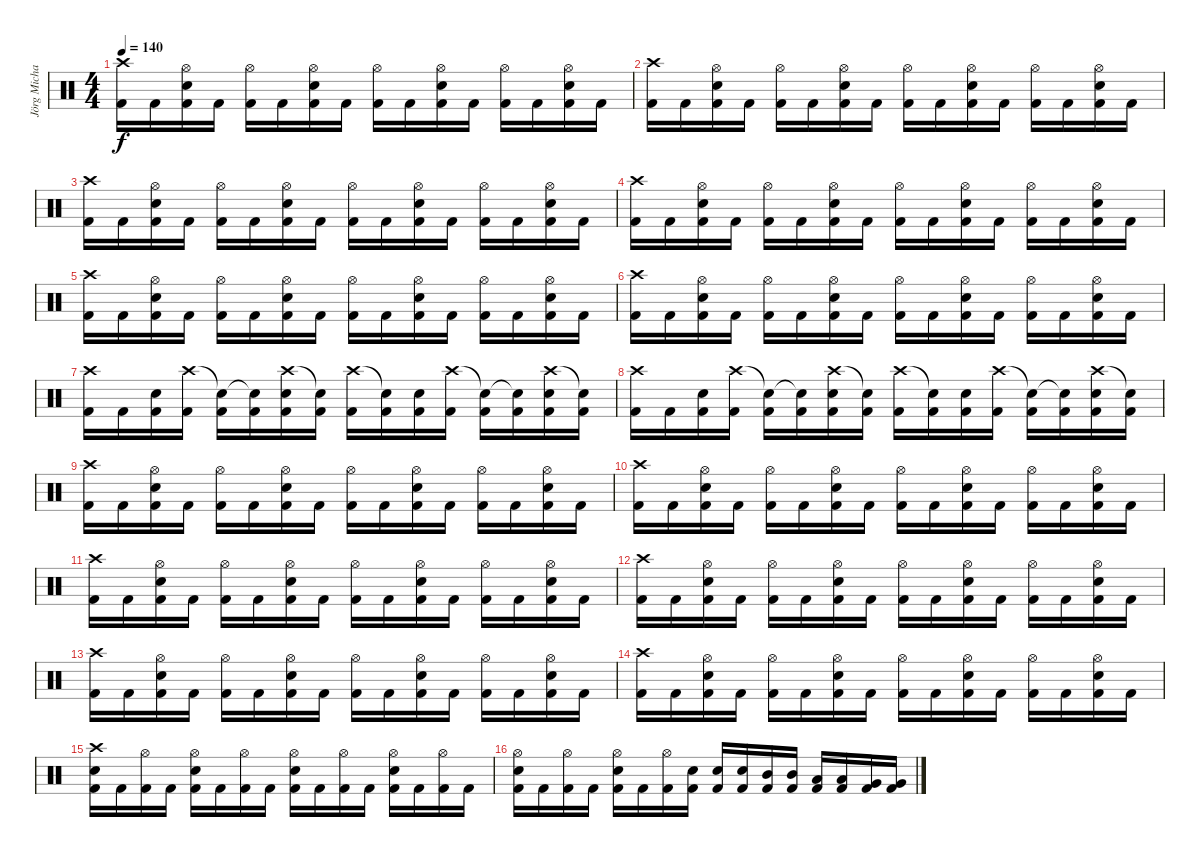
\track ("Jörg Michael" "Jörg Micha") {instrument percussion}
\staff {score}
\articulation defaults
\ts (4 4)
\tempo 140
\clef neutral
\ks c
("Crash high (hit)" "Kick (hit) 2").16{dy f} "Kick (hit) 2".16 ("Electric Snare (hit)" "Kick (hit) 2" "Hi-Hat (open)").16 "Kick (hit) 2".16 ("Kick (hit) 2" "Hi-Hat (open)").16 "Kick (hit) 2".16 ("Electric Snare (hit)" "Kick (hit) 2" "Hi-Hat (open)").16 "Kick (hit) 2".16 ("Kick (hit) 2" "Hi-Hat (open)").16 "Kick (hit) 2".16 ("Electric Snare (hit)" "Kick (hit) 2" "Hi-Hat (open)").16 "Kick (hit) 2".16 ("Kick (hit) 2" "Hi-Hat (open)").16 "Kick (hit) 2".16 ("Electric Snare (hit)" "Kick (hit) 2" "Hi-Hat (open)").16 "Kick (hit) 2".16 |
("Crash high (hit)" "Kick (hit) 2").16 "Kick (hit) 2".16 ("Electric Snare (hit)" "Kick (hit) 2" "Hi-Hat (open)").16 "Kick (hit) 2".16 ("Kick (hit) 2" "Hi-Hat (open)").16 "Kick (hit) 2".16 ("Electric Snare (hit)" "Kick (hit) 2" "Hi-Hat (open)").16 "Kick (hit) 2".16 ("Kick (hit) 2" "Hi-Hat (open)").16 "Kick (hit) 2".16 ("Electric Snare (hit)" "Kick (hit) 2" "Hi-Hat (open)").16 "Kick (hit) 2".16 ("Kick (hit) 2" "Hi-Hat (open)").16 "Kick (hit) 2".16 ("Electric Snare (hit)" "Kick (hit) 2" "Hi-Hat (open)").16 "Kick (hit) 2".16 |
("Crash high (hit)" "Kick (hit) 2").16 "Kick (hit) 2".16 ("Electric Snare (hit)" "Kick (hit) 2" "Hi-Hat (open)").16 "Kick (hit) 2".16 ("Kick (hit) 2" "Hi-Hat (open)").16 "Kick (hit) 2".16 ("Electric Snare (hit)" "Kick (hit) 2" "Hi-Hat (open)").16 "Kick (hit) 2".16 ("Kick (hit) 2" "Hi-Hat (open)").16 "Kick (hit) 2".16 ("Electric Snare (hit)" "Kick (hit) 2" "Hi-Hat (open)").16 "Kick (hit) 2".16 ("Kick (hit) 2" "Hi-Hat (open)").16 "Kick (hit) 2".16 ("Electric Snare (hit)" "Kick (hit) 2" "Hi-Hat (open)").16 "Kick (hit) 2".16 |
("Crash high (hit)" "Kick (hit) 2").16 "Kick (hit) 2".16 ("Electric Snare (hit)" "Kick (hit) 2" "Hi-Hat (open)").16 "Kick (hit) 2".16 ("Kick (hit) 2" "Hi-Hat (open)").16 "Kick (hit) 2".16 ("Electric Snare (hit)" "Kick (hit) 2" "Hi-Hat (open)").16 "Kick (hit) 2".16 ("Kick (hit) 2" "Hi-Hat (open)").16 "Kick (hit) 2".16 ("Electric Snare (hit)" "Kick (hit) 2" "Hi-Hat (open)").16 "Kick (hit) 2".16 ("Kick (hit) 2" "Hi-Hat (open)").16 "Kick (hit) 2".16 ("Electric Snare (hit)" "Kick (hit) 2" "Hi-Hat (open)").16 "Kick (hit) 2".16 |
("Crash high (hit)" "Kick (hit) 2").16 "Kick (hit) 2".16 ("Electric Snare (hit)" "Kick (hit) 2" "Hi-Hat (open)").16 "Kick (hit) 2".16 ("Kick (hit) 2" "Hi-Hat (open)").16 "Kick (hit) 2".16 ("Electric Snare (hit)" "Kick (hit) 2" "Hi-Hat (open)").16 "Kick (hit) 2".16 ("Kick (hit) 2" "Hi-Hat (open)").16 "Kick (hit) 2".16 ("Electric Snare (hit)" "Kick (hit) 2" "Hi-Hat (open)").16 "Kick (hit) 2".16 ("Kick (hit) 2" "Hi-Hat (open)").16 "Kick (hit) 2".16 ("Electric Snare (hit)" "Kick (hit) 2" "Hi-Hat (open)").16 "Kick (hit) 2".16 |
("Crash high (hit)" "Kick (hit) 2").16 "Kick (hit) 2".16 ("Electric Snare (hit)" "Kick (hit) 2" "Hi-Hat (open)").16 "Kick (hit) 2".16 ("Kick (hit) 2" "Hi-Hat (open)").16 "Kick (hit) 2".16 ("Electric Snare (hit)" "Kick (hit) 2" "Hi-Hat (open)").16 "Kick (hit) 2".16 ("Kick (hit) 2" "Hi-Hat (open)").16 "Kick (hit) 2".16 ("Electric Snare (hit)" "Kick (hit) 2" "Hi-Hat (open)").16 "Kick (hit) 2".16 ("Kick (hit) 2" "Hi-Hat (open)").16 "Kick (hit) 2".16 ("Electric Snare (hit)" "Kick (hit) 2" "Hi-Hat (open)").16 "Kick (hit) 2".16 |
("Crash high (hit)" "Kick (hit) 2").16 "Kick (hit) 2".16 ("Electric Snare (hit)" "Kick (hit) 2").16 ("Crash high (hit)" "Kick (hit) 2").16 ("Snare (hit)"{t} "Kick (hit) 2").16 ("Snare (hit)"{t} "Kick (hit) 2").16 ("Crash high (hit)" "Kick (hit) 2" "Electric Snare (hit)").16 ("Snare (hit)"{t} "Kick (hit) 2").16 ("Crash high (hit)" "Kick (hit) 2").16 ("Snare (hit)"{t} "Kick (hit) 2").16 ("Electric Snare (hit)" "Kick (hit) 2").16 ("Crash high (hit)" "Kick (hit) 2").16 ("Snare (hit)"{t} "Kick (hit) 2").16 ("Snare (hit)"{t} "Kick (hit) 2").16 ("Crash high (hit)" "Kick (hit) 2" "Electric Snare (hit)").16 ("Snare (hit)"{t} "Kick (hit) 2").16 |
("Crash high (hit)" "Kick (hit) 2").16 "Kick (hit) 2".16 ("Electric Snare (hit)" "Kick (hit) 2").16 ("Crash high (hit)" "Kick (hit) 2").16 ("Snare (hit)"{t} "Kick (hit) 2").16 ("Snare (hit)"{t} "Kick (hit) 2").16 ("Crash high (hit)" "Kick (hit) 2" "Electric Snare (hit)").16 ("Snare (hit)"{t} "Kick (hit) 2").16 ("Crash high (hit)" "Kick (hit) 2").16 ("Snare (hit)"{t} "Kick (hit) 2").16 ("Electric Snare (hit)" "Kick (hit) 2").16 ("Crash high (hit)" "Kick (hit) 2").16 ("Snare (hit)"{t} "Kick (hit) 2").16 ("Snare (hit)"{t} "Kick (hit) 2").16 ("Crash high (hit)" "Kick (hit) 2" "Electric Snare (hit)").16 ("Snare (hit)"{t} "Kick (hit) 2").16 |
("Crash high (hit)" "Kick (hit) 2").16 "Kick (hit) 2".16 ("Electric Snare (hit)" "Kick (hit) 2" "Hi-Hat (open)").16 "Kick (hit) 2".16 ("Kick (hit) 2" "Hi-Hat (open)").16 "Kick (hit) 2".16 ("Electric Snare (hit)" "Kick (hit) 2" "Hi-Hat (open)").16 "Kick (hit) 2".16 ("Kick (hit) 2" "Hi-Hat (open)").16 "Kick (hit) 2".16 ("Electric Snare (hit)" "Kick (hit) 2" "Hi-Hat (open)").16 "Kick (hit) 2".16 ("Kick (hit) 2" "Hi-Hat (open)").16 "Kick (hit) 2".16 ("Electric Snare (hit)" "Kick (hit) 2" "Hi-Hat (open)").16 "Kick (hit) 2".16 |
("Crash high (hit)" "Kick (hit) 2").16 "Kick (hit) 2".16 ("Electric Snare (hit)" "Kick (hit) 2" "Hi-Hat (open)").16 "Kick (hit) 2".16 ("Kick (hit) 2" "Hi-Hat (open)").16 "Kick (hit) 2".16 ("Electric Snare (hit)" "Kick (hit) 2" "Hi-Hat (open)").16 "Kick (hit) 2".16 ("Kick (hit) 2" "Hi-Hat (open)").16 "Kick (hit) 2".16 ("Electric Snare (hit)" "Kick (hit) 2" "Hi-Hat (open)").16 "Kick (hit) 2".16 ("Kick (hit) 2" "Hi-Hat (open)").16 "Kick (hit) 2".16 ("Electric Snare (hit)" "Kick (hit) 2" "Hi-Hat (open)").16 "Kick (hit) 2".16 |
("Crash high (hit)" "Kick (hit) 2").16 "Kick (hit) 2".16 ("Electric Snare (hit)" "Kick (hit) 2" "Hi-Hat (open)").16 "Kick (hit) 2".16 ("Kick (hit) 2" "Hi-Hat (open)").16 "Kick (hit) 2".16 ("Electric Snare (hit)" "Kick (hit) 2" "Hi-Hat (open)").16 "Kick (hit) 2".16 ("Kick (hit) 2" "Hi-Hat (open)").16 "Kick (hit) 2".16 ("Electric Snare (hit)" "Kick (hit) 2" "Hi-Hat (open)").16 "Kick (hit) 2".16 ("Kick (hit) 2" "Hi-Hat (open)").16 "Kick (hit) 2".16 ("Electric Snare (hit)" "Kick (hit) 2" "Hi-Hat (open)").16 "Kick (hit) 2".16 |
("Crash high (hit)" "Kick (hit) 2").16 "Kick (hit) 2".16 ("Electric Snare (hit)" "Kick (hit) 2" "Hi-Hat (open)").16 "Kick (hit) 2".16 ("Kick (hit) 2" "Hi-Hat (open)").16 "Kick (hit) 2".16 ("Electric Snare (hit)" "Kick (hit) 2" "Hi-Hat (open)").16 "Kick (hit) 2".16 ("Kick (hit) 2" "Hi-Hat (open)").16 "Kick (hit) 2".16 ("Electric Snare (hit)" "Kick (hit) 2" "Hi-Hat (open)").16 "Kick (hit) 2".16 ("Kick (hit) 2" "Hi-Hat (open)").16 "Kick (hit) 2".16 ("Electric Snare (hit)" "Kick (hit) 2" "Hi-Hat (open)").16 "Kick (hit) 2".16 |
("Crash high (hit)" "Kick (hit) 2").16 "Kick (hit) 2".16 ("Electric Snare (hit)" "Kick (hit) 2" "Hi-Hat (open)").16 "Kick (hit) 2".16 ("Kick (hit) 2" "Hi-Hat (open)").16 "Kick (hit) 2".16 ("Electric Snare (hit)" "Kick (hit) 2" "Hi-Hat (open)").16 "Kick (hit) 2".16 ("Kick (hit) 2" "Hi-Hat (open)").16 "Kick (hit) 2".16 ("Electric Snare (hit)" "Kick (hit) 2" "Hi-Hat (open)").16 "Kick (hit) 2".16 ("Kick (hit) 2" "Hi-Hat (open)").16 "Kick (hit) 2".16 ("Electric Snare (hit)" "Kick (hit) 2" "Hi-Hat (open)").16 "Kick (hit) 2".16 |
("Crash high (hit)" "Kick (hit) 2").16 "Kick (hit) 2".16 ("Electric Snare (hit)" "Kick (hit) 2" "Hi-Hat (open)").16 "Kick (hit) 2".16 ("Kick (hit) 2" "Hi-Hat (open)").16 "Kick (hit) 2".16 ("Electric Snare (hit)" "Kick (hit) 2" "Hi-Hat (open)").16 "Kick (hit) 2".16 ("Kick (hit) 2" "Hi-Hat (open)").16 "Kick (hit) 2".16 ("Electric Snare (hit)" "Kick (hit) 2" "Hi-Hat (open)").16 "Kick (hit) 2".16 ("Kick (hit) 2" "Hi-Hat (open)").16 "Kick (hit) 2".16 ("Electric Snare (hit)" "Kick (hit) 2" "Hi-Hat (open)").16 "Kick (hit) 2".16 |
("Crash high (hit)" "Electric Snare (hit)" "Kick (hit) 2").16 "Kick (hit) 2".16 ("Hi-Hat (open)" "Kick (hit) 2").16 "Kick (hit) 2".16 ("Hi-Hat (open)" "Electric Snare (hit)" "Kick (hit) 2").16 "Kick (hit) 2".16 ("Hi-Hat (open)" "Kick (hit) 2").16 "Kick (hit) 2".16 ("Hi-Hat (open)" "Electric Snare (hit)" "Kick (hit) 2").16 "Kick (hit) 2".16 ("Hi-Hat (open)" "Kick (hit) 2").16 "Kick (hit) 2".16 ("Hi-Hat (open)" "Electric Snare (hit)" "Kick (hit) 2").16 "Kick (hit) 2".16 ("Hi-Hat (open)" "Kick (hit) 2").16 "Kick (hit) 2".16 |
("Hi-Hat (open)" "Electric Snare (hit)" "Kick (hit) 2").16 "Kick (hit) 2".16 ("Hi-Hat (open)" "Kick (hit) 2").16 "Kick (hit) 2".16 ("Hi-Hat (open)" "Electric Snare (hit)" "Kick (hit) 2").16 "Kick (hit) 2".16 ("Hi-Hat (open)" "Kick (hit) 2").16 ("Electric Snare (hit)" "Kick (hit) 2").16 ("Electric Snare (hit)" "Kick (hit) 2").16 ("Electric Snare (hit)" "Kick (hit) 2").16 ("Mid Tom (hit)" "Kick (hit) 2").16 ("Mid Tom (hit)" "Kick (hit) 2").16 ("Low Tom (hit)" "Kick (hit) 2").16 ("Low Tom (hit)" "Kick (hit) 2").16 ("Very Low Tom (hit)" "Kick (hit) 2").16 ("Very Low Tom (hit)" "Kick (hit) 2").16
